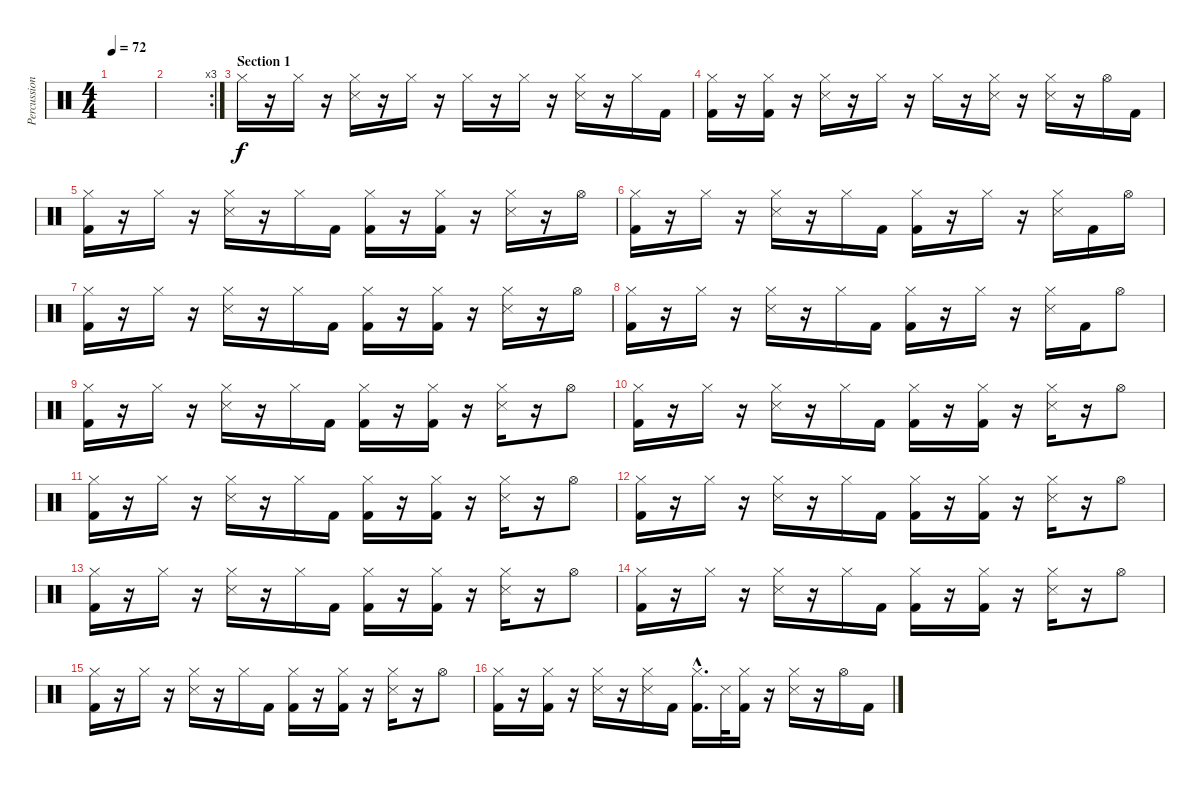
\track ("Percussions" "Percussion") {instrument percussion}
\staff {score}
\articulation defaults
\ts (4 4)
\tempo 72
\clef neutral
\ks c
|
\rc 3
|
\section ("" "Section 1")
"Hi-Hat (closed)".16 r.16 "Hi-Hat (closed)".16 r.16 ("Snare (side stick) 3" "Hi-Hat (closed)").16 r.16 "Hi-Hat (closed)".16 r.16 "Hi-Hat (closed)".16 r.16 "Hi-Hat (closed)".16 r.16 ("Snare (side stick) 3" "Hi-Hat (closed)").16 r.16 "Hi-Hat (closed)".16 "Kick (hit) 2".16 |
("Kick (hit) 2" "Hi-Hat (closed)").16 r.16 ("Kick (hit) 2" "Hi-Hat (closed)").16 r.16 ("Snare (side stick) 3" "Hi-Hat (closed)").16 r.16 "Hi-Hat (closed)".16 r.16 "Hi-Hat (closed)".16 r.16 ("Snare (side stick) 3" "Hi-Hat (closed)").16 r.16 ("Snare (side stick) 3" "Hi-Hat (closed)").16 r.16 "Hi-Hat (open)".16 "Kick (hit) 2".16 |
("Kick (hit) 2" "Hi-Hat (closed)").16 r.16 "Hi-Hat (closed)".16 r.16 ("Snare (side stick) 3" "Hi-Hat (closed)").16 r.16 "Hi-Hat (closed)".16 "Kick (hit) 2".16 ("Kick (hit) 2" "Hi-Hat (closed)").16 r.16 ("Kick (hit) 2" "Hi-Hat (closed)").16 r.16 ("Snare (side stick) 3" "Hi-Hat (closed)").16 r.16 "Hi-Hat (open)".16 |
("Kick (hit) 2" "Hi-Hat (closed)").16 r.16 "Hi-Hat (closed)".16 r.16 ("Snare (side stick) 3" "Hi-Hat (closed)").16 r.16 "Hi-Hat (closed)".16 "Kick (hit) 2".16 ("Kick (hit) 2" "Hi-Hat (closed)").16 r.16 "Hi-Hat (closed)".16 r.16 ("Snare (side stick) 3" "Hi-Hat (closed)").16 "Kick (hit) 2".16 "Hi-Hat (open)".16 |
("Kick (hit) 2" "Hi-Hat (closed)").16 r.16 "Hi-Hat (closed)".16 r.16 ("Snare (side stick) 3" "Hi-Hat (closed)").16 r.16 "Hi-Hat (closed)".16 "Kick (hit) 2".16 ("Kick (hit) 2" "Hi-Hat (closed)").16 r.16 ("Kick (hit) 2" "Hi-Hat (closed)").16 r.16 ("Snare (side stick) 3" "Hi-Hat (closed)").16 r.16 "Hi-Hat (open)".16 |
("Kick (hit) 2" "Hi-Hat (closed)").16 r.16 "Hi-Hat (closed)".16 r.16 ("Snare (side stick) 3" "Hi-Hat (closed)").16 r.16 "Hi-Hat (closed)".16 "Kick (hit) 2".16 ("Kick (hit) 2" "Hi-Hat (closed)").16 r.16 "Hi-Hat (closed)".16 r.16 ("Snare (side stick) 3" "Hi-Hat (closed)").16 "Kick (hit) 2".16 "Hi-Hat (open)".8 |
("Kick (hit) 2" "Hi-Hat (closed)").16 r.16 "Hi-Hat (closed)".16 r.16 ("Snare (side stick) 3" "Hi-Hat (closed)").16 r.16 "Hi-Hat (closed)".16 "Kick (hit) 2".16 ("Kick (hit) 2" "Hi-Hat (closed)").16 r.16 ("Kick (hit) 2" "Hi-Hat (closed)").16 r.16 ("Snare (side stick) 3" "Hi-Hat (closed)").16 r.16 "Hi-Hat (open)".8 |
("Kick (hit) 2" "Hi-Hat (closed)").16 r.16 "Hi-Hat (closed)".16 r.16 ("Snare (side stick) 3" "Hi-Hat (closed)").16 r.16 "Hi-Hat (closed)".16 "Kick (hit) 2".16 ("Kick (hit) 2" "Hi-Hat (closed)").16 r.16 ("Kick (hit) 2" "Hi-Hat (closed)").16 r.16 ("Snare (side stick) 3" "Hi-Hat (closed)").16 r.16 "Hi-Hat (open)".8 |
("Kick (hit) 2" "Hi-Hat (closed)").16 r.16 "Hi-Hat (closed)".16 r.16 ("Snare (side stick) 3" "Hi-Hat (closed)").16 r.16 "Hi-Hat (closed)".16 "Kick (hit) 2".16 ("Kick (hit) 2" "Hi-Hat (closed)").16 r.16 ("Kick (hit) 2" "Hi-Hat (closed)").16 r.16 ("Snare (side stick) 3" "Hi-Hat (closed)").16 r.16 "Hi-Hat (open)".8 |
("Kick (hit) 2" "Hi-Hat (closed)").16 r.16 "Hi-Hat (closed)".16 r.16 ("Snare (side stick) 3" "Hi-Hat (closed)").16 r.16 "Hi-Hat (closed)".16 "Kick (hit) 2".16 ("Kick (hit) 2" "Hi-Hat (closed)").16 r.16 ("Kick (hit) 2" "Hi-Hat (closed)").16 r.16 ("Snare (side stick) 3" "Hi-Hat (closed)").16 r.16 "Hi-Hat (open)".8 |
("Kick (hit) 2" "Hi-Hat (closed)").16 r.16 "Hi-Hat (closed)".16 r.16 ("Snare (side stick) 3" "Hi-Hat (closed)").16 r.16 "Hi-Hat (closed)".16 "Kick (hit) 2".16 ("Kick (hit) 2" "Hi-Hat (closed)").16 r.16 ("Kick (hit) 2" "Hi-Hat (closed)").16 r.16 ("Snare (side stick) 3" "Hi-Hat (closed)").16 r.16 "Hi-Hat (open)".8 |
("Kick (hit) 2" "Hi-Hat (closed)").16 r.16 "Hi-Hat (closed)".16 r.16 ("Snare (side stick) 3" "Hi-Hat (closed)").16 r.16 "Hi-Hat (closed)".16 "Kick (hit) 2".16 ("Kick (hit) 2" "Hi-Hat (closed)").16 r.16 ("Kick (hit) 2" "Hi-Hat (closed)").16 r.16 ("Snare (side stick) 3" "Hi-Hat (closed)").16 r.16 "Hi-Hat (open)".8 |
("Kick (hit) 2" "Hi-Hat (closed)").16 r.16 "Hi-Hat (closed)".16 r.16 ("Snare (side stick) 3" "Hi-Hat (closed)").16 r.16 "Hi-Hat (closed)".16 "Kick (hit) 2".16 ("Kick (hit) 2" "Hi-Hat (closed)").16 r.16 ("Kick (hit) 2" "Hi-Hat (closed)").16 r.16 ("Snare (side stick) 3" "Hi-Hat (closed)").16 r.16 "Hi-Hat (open)".8 |
("Kick (hit) 2" "Hi-Hat (closed)").16 r.16 ("Kick (hit) 2" "Hi-Hat (closed)").16 r.16 ("Snare (side stick) 3" "Hi-Hat (closed)").16 r.16 ("Snare (side stick) 3" "Hi-Hat (closed)").16 "Kick (hit) 2".16 ("Kick (hit) 2"{hac} "Hi-Hat (closed)"{hac}).16{d} "Snare (side stick) 3".32 ("Kick (hit) 2" "Hi-Hat (closed)").16 r.16 ("Snare (side stick) 3" "Hi-Hat (closed)").16 r.16 "Hi-Hat (open)".16 "Kick (hit) 2".16
